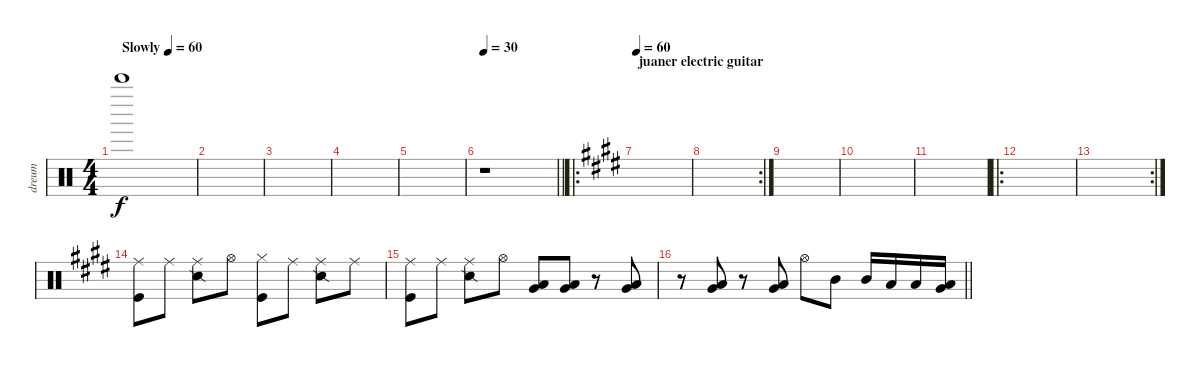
\track ("dreum" "dreum") {instrument percussion}
\staff {score}
\articulation defaults
\ts (4 4)
\tempo (60 "Slowly")
\clef neutral
\ks c "Bell Tree (hit)".1{dy f}
|
|
|
|
|
\tempo 30
\barLineRight lightlight
r.1 |
\ro
\section ("" "juaner electric guitar")
\tempo 60
\ks c#minor
|
\rc 2
|
|
|
|
\ro
|
\rc 2
|
("Ride (middle)" "Kick (hit)").8 "Ride (middle)".8 ("Ride (middle)" "Snare (side stick) 2").8 "Hi-Hat (open)".8 ("Hi-Hat (closed)" "Kick (hit)").8 "Ride (middle)".8 ("Ride (middle)" "Snare (side stick) 2").8 "Ride (middle)".8 |
("Ride (middle)" "Kick (hit)").8 "Ride (middle)".8 ("Ride (middle)" "Snare (side stick) 2").8 "Hi-Hat (open)".8 ("Low Floor Tom (hit)" "Very Low Tom (hit)").8 ("Low Floor Tom (hit)" "Very Low Tom (hit)").8 r.8 ("Very Low Tom (hit)" "Low Floor Tom (hit)").8 |
\barLineRight lightlight
r.8 ("Low Floor Tom (hit)" "Very Low Tom (hit)").8 r.8 ("Low Floor Tom (hit)" "Very Low Tom (hit)").8 "Hi-Hat (open)".8 "Mid Tom (hit)".8 "Mid Tom (hit)".16 "Low Tom (hit)".16 "Low Floor Tom (hit)".16 ("Low Floor Tom (hit)" "Very Low Tom (hit)").16
